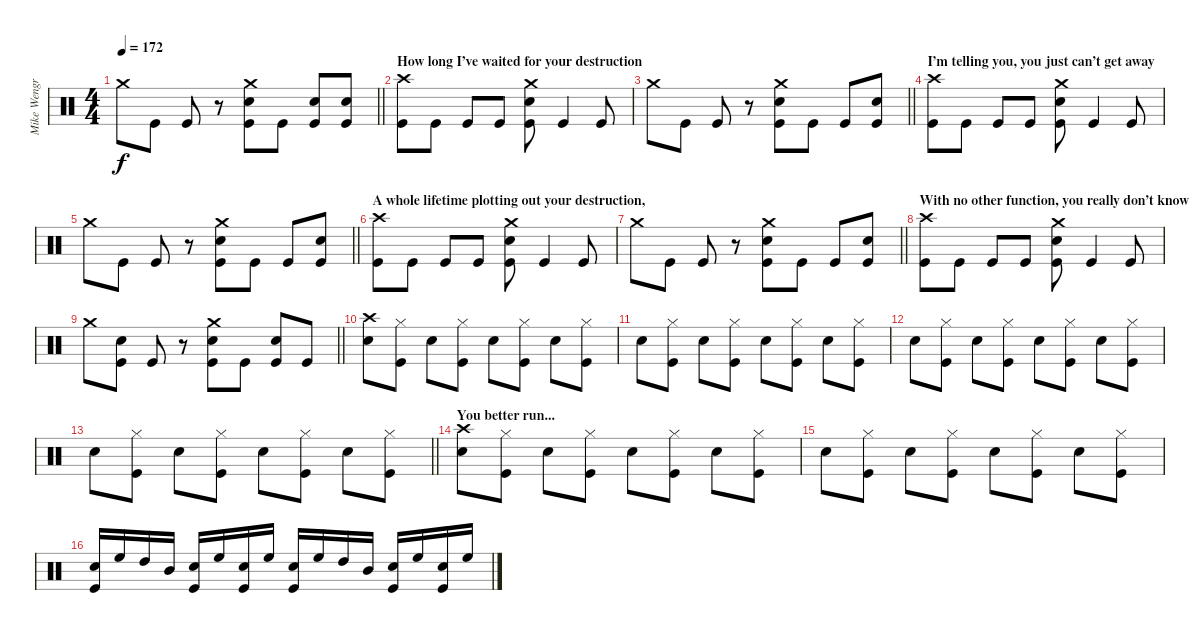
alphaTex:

\track ("Mike Wengren - Drums" "Mike Wengr") {instrument percussion}
\staff {score}
\articulation defaults
\ts (4 4)
\tempo 172
\clef neutral
\barLineRight lightlight
\ks c "Crash medium (hit)".8{dy f} "Kick (hit)".8 "Kick (hit)".8
r.8 ("Crash medium (hit)" "Snare (hit) 2" "Kick (hit)").8 "Kick (hit)".8 ("Snare (hit) 2" "Kick (hit)").8 ("Snare (hit) 2" "Kick (hit)").8 |
\section ("" "How long I’ve waited for your destruction")
("Crash high (hit)" "Kick (hit)").8 "Kick (hit)".8 "Kick (hit)".8 "Kick (hit)".8 ("Crash medium (hit)" "Snare (hit) 2" "Kick (hit)").8 "Kick (hit)".4 "Kick (hit)".8 |
\barLineRight lightlight "Crash medium (hit)".8 "Kick (hit)".8 "Kick (hit)".8
r.8 ("Crash medium (hit)" "Snare (hit) 2" "Kick (hit)").8 "Kick (hit)".8 "Kick (hit)".8 ("Snare (hit) 2" "Kick (hit)").8 |
\section ("" "I’m telling you, you just can’t get away")
("Crash high (hit)" "Kick (hit)").8 "Kick (hit)".8 "Kick (hit)".8 "Kick (hit)".8 ("Crash medium (hit)" "Snare (hit) 2" "Kick (hit)").8 "Kick (hit)".4 "Kick (hit)".8 |
\barLineRight lightlight "Crash medium (hit)".8 "Kick (hit)".8 "Kick (hit)".8
r.8 ("Crash medium (hit)" "Snare (hit) 2" "Kick (hit)").8 "Kick (hit)".8 "Kick (hit)".8 ("Snare (hit) 2" "Kick (hit)").8 |
\section ("" "A whole lifetime plotting out your destruction,")
("Crash high (hit)" "Kick (hit)").8 "Kick (hit)".8 "Kick (hit)".8 "Kick (hit)".8 ("Crash medium (hit)" "Snare (hit) 2" "Kick (hit)").8 "Kick (hit)".4 "Kick (hit)".8 |
\barLineRight lightlight "Crash medium (hit)".8 "Kick (hit)".8 "Kick (hit)".8
r.8 ("Crash medium (hit)" "Snare (hit) 2" "Kick (hit)").8 "Kick (hit)".8 "Kick (hit)".8 ("Snare (hit) 2" "Kick (hit)").8 |
\section ("" "With no other function, you really don’t know")
("Crash high (hit)" "Kick (hit)").8 "Kick (hit)".8 "Kick (hit)".8 "Kick (hit)".8 ("Crash medium (hit)" "Snare (hit) 2" "Kick (hit)").8 "Kick (hit)".4 "Kick (hit)".8 |
\barLineRight lightlight "Crash medium (hit)".8
("Snare (hit) 2" "Kick (hit)").8 "Kick (hit)".8 r.8 ("Crash medium (hit)" "Snare (hit) 2" "Kick (hit)").8 "Kick (hit)".8 ("Snare (hit) 2" "Kick (hit)").8 "Kick (hit)".8 |
("Crash high (hit)" "Snare (hit) 2").8 ("Hi-Hat (closed)" "Kick (hit)").8 "Snare (hit) 2".8 ("Hi-Hat (closed)" "Kick (hit)").8 "Snare (hit) 2".8 ("Hi-Hat (closed)" "Kick (hit)").8 "Snare (hit) 2".8 ("Hi-Hat (closed)" "Kick (hit)").8 |
"Snare (hit) 2".8 ("Hi-Hat (closed)" "Kick (hit)").8 "Snare (hit) 2".8 ("Hi-Hat (closed)" "Kick (hit)").8 "Snare (hit) 2".8 ("Hi-Hat (closed)" "Kick (hit)").8 "Snare (hit) 2".8 ("Hi-Hat (closed)" "Kick (hit)").8 |
"Snare (hit) 2".8 ("Hi-Hat (closed)" "Kick (hit)").8 "Snare (hit) 2".8 ("Hi-Hat (closed)" "Kick (hit)").8 "Snare (hit) 2".8 ("Hi-Hat (closed)" "Kick (hit)").8 "Snare (hit) 2".8 ("Hi-Hat (closed)" "Kick (hit)").8 |
\barLineRight lightlight "Snare (hit) 2".8
("Hi-Hat (closed)" "Kick (hit)").8 "Snare (hit) 2".8 ("Hi-Hat (closed)" "Kick (hit)").8 "Snare (hit) 2".8 ("Hi-Hat (closed)" "Kick (hit)").8 "Snare (hit) 2".8 ("Hi-Hat (closed)" "Kick (hit)").8 |
\section ("" "You better run...")
("Crash high (hit)" "Snare (hit) 2").8 ("Hi-Hat (closed)" "Kick (hit)").8 "Snare (hit) 2".8 ("Hi-Hat (closed)" "Kick (hit)").8 "Snare (hit) 2".8 ("Hi-Hat (closed)" "Kick (hit)").8 "Snare (hit) 2".8 ("Hi-Hat (closed)" "Kick (hit)").8 |
"Snare (hit) 2".8 ("Hi-Hat (closed)" "Kick (hit)").8 "Snare (hit) 2".8 ("Hi-Hat (closed)" "Kick (hit)").8 "Snare (hit) 2".8 ("Hi-Hat (closed)" "Kick (hit)").8 "Snare (hit) 2".8 ("Hi-Hat (closed)" "Kick (hit)").8 |
("Snare (hit) 2" "Kick (hit)").16 "High Floor Tom (hit)".16 "High Tom (hit)".16 "Mid Tom (hit)".16 ("Snare (hit) 2" "Kick (hit)").16 "High Floor Tom (hit)".16 ("Snare (hit) 2" "Kick (hit)").16 "High Floor Tom (hit)".16 ("Snare (hit) 2" "Kick (hit)").16 "High Floor Tom (hit)".16 "High Tom (hit)".16 "Mid Tom (hit)".16 ("Snare (hit) 2" "Kick (hit)").16 "High Floor Tom (hit)".16 ("Snare (hit) 2" "Kick (hit)").16 "High Floor Tom (hit)".16
